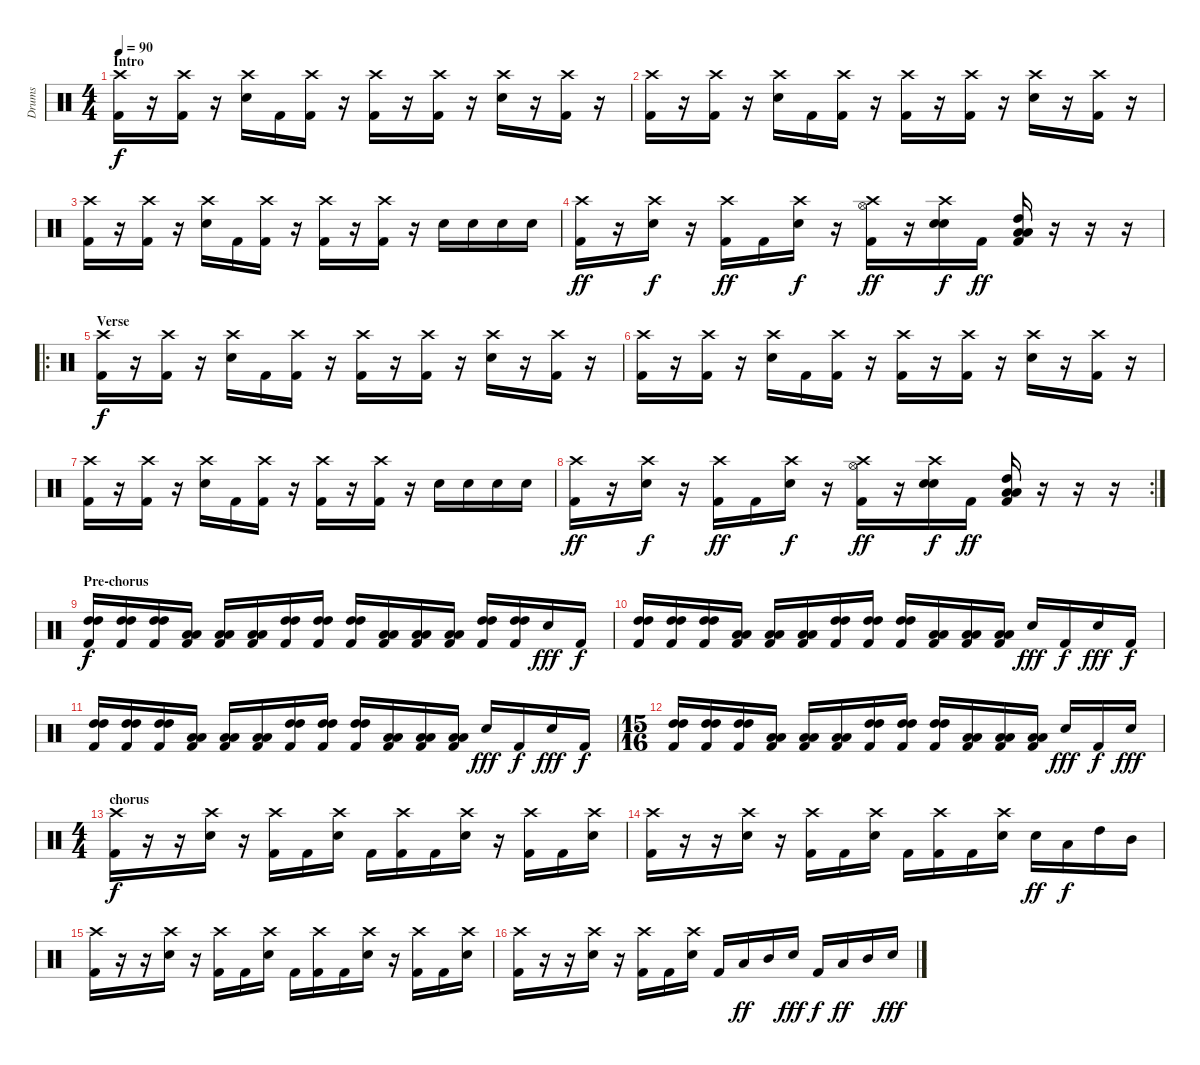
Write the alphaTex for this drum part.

\track ("Drums" "Drums") {instrument percussion}
\staff {score}
\articulation defaults
\ts (4 4)
\section ("" "Intro")
\tempo 90
\clef neutral
\ks c
("Crash high (hit)" "Kick (hit) 2").16{dy f} r.16 ("Crash high (hit)" "Kick (hit) 2").16 r.16 ("Crash high (hit)" "Electric Snare (hit)").16 "Kick (hit) 2".16 ("Crash high (hit)" "Kick (hit) 2").16 r.16 ("Crash high (hit)" "Kick (hit) 2").16 r.16 ("Crash high (hit)" "Kick (hit) 2").16 r.16 ("Crash high (hit)" "Electric Snare (hit)").16 r.16 ("Crash high (hit)" "Kick (hit) 2").16 r.16 |
("Crash high (hit)" "Kick (hit) 2").16 r.16 ("Crash high (hit)" "Kick (hit) 2").16 r.16 ("Crash high (hit)" "Electric Snare (hit)").16 "Kick (hit) 2".16 ("Crash high (hit)" "Kick (hit) 2").16 r.16 ("Crash high (hit)" "Kick (hit) 2").16 r.16 ("Crash high (hit)" "Kick (hit) 2").16 r.16 ("Crash high (hit)" "Electric Snare (hit)").16 r.16 ("Crash high (hit)" "Kick (hit) 2").16 r.16 |
("Crash high (hit)" "Kick (hit) 2").16 r.16 ("Crash high (hit)" "Kick (hit) 2").16 r.16 ("Crash high (hit)" "Electric Snare (hit)").16 "Kick (hit) 2".16 ("Crash high (hit)" "Kick (hit) 2").16 r.16 ("Crash high (hit)" "Kick (hit) 2").16 r.16 ("Crash high (hit)" "Kick (hit) 2").16 r.16 "Electric Snare (hit)".16 "Electric Snare (hit)".16 "Electric Snare (hit)".16 "Electric Snare (hit)".16 |
("Crash high (hit)" "Kick (hit) 2").16{dy ff} r.16 ("Crash high (hit)" "Electric Snare (hit)").16{dy f} r.16 ("Crash high (hit)" "Kick (hit) 2").16{dy ff} "Kick (hit) 2".16 ("Crash high (hit)" "Electric Snare (hit)").16{dy f} r.16 ("Crash high (hit)" "Hi-Hat (open)" "Kick (hit) 2").16{dy ff} r.16 ("Crash high (hit)" "Electric Snare (hit)" "Electric Snare (hit)").16{dy f} "Kick (hit) 2".16{dy ff} ("Low Tom (hit)" "High Tom (hit)" "Low Tom (hit)" "Kick (hit) 2").16 r.16 r.16 r.16 |
\ro
\section ("" "Verse")
("Crash high (hit)" "Kick (hit) 2").16{dy f} r.16 ("Crash high (hit)" "Kick (hit) 2").16 r.16 ("Crash high (hit)" "Electric Snare (hit)").16 "Kick (hit) 2".16 ("Crash high (hit)" "Kick (hit) 2").16 r.16 ("Crash high (hit)" "Kick (hit) 2").16 r.16 ("Crash high (hit)" "Kick (hit) 2").16 r.16 ("Crash high (hit)" "Electric Snare (hit)").16 r.16 ("Crash high (hit)" "Kick (hit) 2").16 r.16 |
("Crash high (hit)" "Kick (hit) 2").16 r.16 ("Crash high (hit)" "Kick (hit) 2").16 r.16 ("Crash high (hit)" "Electric Snare (hit)").16 "Kick (hit) 2".16 ("Crash high (hit)" "Kick (hit) 2").16 r.16 ("Crash high (hit)" "Kick (hit) 2").16 r.16 ("Crash high (hit)" "Kick (hit) 2").16 r.16 ("Crash high (hit)" "Electric Snare (hit)").16 r.16 ("Crash high (hit)" "Kick (hit) 2").16 r.16 |
("Crash high (hit)" "Kick (hit) 2").16 r.16 ("Crash high (hit)" "Kick (hit) 2").16 r.16 ("Crash high (hit)" "Electric Snare (hit)").16 "Kick (hit) 2".16 ("Crash high (hit)" "Kick (hit) 2").16 r.16 ("Crash high (hit)" "Kick (hit) 2").16 r.16 ("Crash high (hit)" "Kick (hit) 2").16 r.16 "Electric Snare (hit)".16 "Electric Snare (hit)".16 "Electric Snare (hit)".16 "Electric Snare (hit)".16 |
\rc 2
("Crash high (hit)" "Kick (hit) 2").16{dy ff} r.16 ("Crash high (hit)" "Electric Snare (hit)").16{dy f} r.16 ("Crash high (hit)" "Kick (hit) 2").16{dy ff} "Kick (hit) 2".16 ("Crash high (hit)" "Electric Snare (hit)").16{dy f} r.16 ("Crash high (hit)" "Hi-Hat (open)" "Kick (hit) 2").16{dy ff} r.16 ("Crash high (hit)" "Electric Snare (hit)" "Electric Snare (hit)").16{dy f} "Kick (hit) 2".16{dy ff} ("Low Tom (hit)" "High Tom (hit)" "Low Tom (hit)" "Kick (hit) 2").16 r.16 r.16 r.16 |
\section ("" "Pre-chorus")
("High Tom (hit)" "High Tom (hit)" "Kick (hit) 2").16{dy f} ("High Tom (hit)" "High Tom (hit)" "Kick (hit) 2").16 ("High Tom (hit)" "High Tom (hit)" "Kick (hit) 2").16 ("Low Tom (hit)" "Low Tom (hit)" "Kick (hit) 2").16 ("Low Tom (hit)" "Low Tom (hit)" "Kick (hit) 2").16 ("Low Tom (hit)" "Low Tom (hit)" "Kick (hit) 2").16 ("High Tom (hit)" "High Tom (hit)" "Kick (hit) 2").16 ("High Tom (hit)" "High Tom (hit)" "Kick (hit) 2").16 ("High Tom (hit)" "High Tom (hit)" "Kick (hit) 2").16 ("Low Tom (hit)" "Low Tom (hit)" "Kick (hit) 2").16 ("Low Tom (hit)" "Low Tom (hit)" "Kick (hit) 2").16 ("Low Tom (hit)" "Low Tom (hit)" "Kick (hit) 2").16 ("High Tom (hit)" "High Tom (hit)" "Kick (hit) 2").16 ("High Tom (hit)" "High Tom (hit)" "Kick (hit) 2").16 "Electric Snare (hit)".16{dy fff} "Kick (hit) 2".16{dy f} |
("High Tom (hit)" "High Tom (hit)" "Kick (hit) 2").16 ("High Tom (hit)" "High Tom (hit)" "Kick (hit) 2").16 ("High Tom (hit)" "High Tom (hit)" "Kick (hit) 2").16 ("Low Tom (hit)" "Low Tom (hit)" "Kick (hit) 2").16 ("Low Tom (hit)" "Low Tom (hit)" "Kick (hit) 2").16 ("Low Tom (hit)" "Low Tom (hit)" "Kick (hit) 2").16 ("High Tom (hit)" "High Tom (hit)" "Kick (hit) 2").16 ("High Tom (hit)" "High Tom (hit)" "Kick (hit) 2").16 ("High Tom (hit)" "High Tom (hit)" "Kick (hit) 2").16 ("Low Tom (hit)" "Low Tom (hit)" "Kick (hit) 2").16 ("Low Tom (hit)" "Low Tom (hit)" "Kick (hit) 2").16 ("Low Tom (hit)" "Low Tom (hit)" "Kick (hit) 2").16 "Electric Snare (hit)".16{dy fff} "Kick (hit) 2".16{dy f} "Electric Snare (hit)".16{dy fff} "Kick (hit) 2".16{dy f} |
("High Tom (hit)" "High Tom (hit)" "Kick (hit) 2").16 ("High Tom (hit)" "High Tom (hit)" "Kick (hit) 2").16 ("High Tom (hit)" "High Tom (hit)" "Kick (hit) 2").16 ("Low Tom (hit)" "Low Tom (hit)" "Kick (hit) 2").16 ("Low Tom (hit)" "Low Tom (hit)" "Kick (hit) 2").16 ("Low Tom (hit)" "Low Tom (hit)" "Kick (hit) 2").16 ("High Tom (hit)" "High Tom (hit)" "Kick (hit) 2").16 ("High Tom (hit)" "High Tom (hit)" "Kick (hit) 2").16 ("High Tom (hit)" "High Tom (hit)" "Kick (hit) 2").16 ("Low Tom (hit)" "Low Tom (hit)" "Kick (hit) 2").16 ("Low Tom (hit)" "Low Tom (hit)" "Kick (hit) 2").16 ("Low Tom (hit)" "Low Tom (hit)" "Kick (hit) 2").16 "Electric Snare (hit)".16{dy fff} "Kick (hit) 2".16{dy f} "Electric Snare (hit)".16{dy fff} "Kick (hit) 2".16{dy f} |
\ts (15 16)
("High Tom (hit)" "High Tom (hit)" "Kick (hit) 2").16 ("High Tom (hit)" "High Tom (hit)" "Kick (hit) 2").16 ("High Tom (hit)" "High Tom (hit)" "Kick (hit) 2").16 ("Low Tom (hit)" "Low Tom (hit)" "Kick (hit) 2").16 ("Low Tom (hit)" "Low Tom (hit)" "Kick (hit) 2").16 ("Low Tom (hit)" "Low Tom (hit)" "Kick (hit) 2").16 ("High Tom (hit)" "High Tom (hit)" "Kick (hit) 2").16 ("High Tom (hit)" "High Tom (hit)" "Kick (hit) 2").16 ("High Tom (hit)" "High Tom (hit)" "Kick (hit) 2").16 ("Low Tom (hit)" "Low Tom (hit)" "Kick (hit) 2").16 ("Low Tom (hit)" "Low Tom (hit)" "Kick (hit) 2").16 ("Low Tom (hit)" "Low Tom (hit)" "Kick (hit) 2").16 "Electric Snare (hit)".16{dy fff} "Kick (hit) 2".16{dy f} "Electric Snare (hit)".16{dy fff} |
\ts (4 4)
\section ("" "chorus")
("Crash high (hit)" "Kick (hit) 2").16{dy f} r.16 r.16 ("Crash high (hit)" "Electric Snare (hit)").16 r.16 ("Crash high (hit)" "Kick (hit) 2").16 "Kick (hit) 2".16 ("Crash high (hit)" "Electric Snare (hit)").16 "Kick (hit) 2".16 ("Crash high (hit)" "Kick (hit) 2").16 "Kick (hit) 2".16 ("Crash high (hit)" "Electric Snare (hit)").16 r.16 ("Crash high (hit)" "Kick (hit) 2").16 "Kick (hit) 2".16 ("Crash high (hit)" "Electric Snare (hit)").16 |
("Crash high (hit)" "Kick (hit) 2").16 r.16 r.16 ("Crash high (hit)" "Electric Snare (hit)").16 r.16 ("Crash high (hit)" "Kick (hit) 2").16 "Kick (hit) 2".16 ("Crash high (hit)" "Electric Snare (hit)").16 "Kick (hit) 2".16 ("Crash high (hit)" "Kick (hit) 2").16 "Kick (hit) 2".16 ("Crash high (hit)" "Electric Snare (hit)").16 "Electric Snare (hit)".16{dy ff} "Low Tom (hit)".16{dy f} "High Tom (hit)".16 "Mid Tom (hit)".16 |
("Crash high (hit)" "Kick (hit) 2").16 r.16 r.16 ("Crash high (hit)" "Electric Snare (hit)").16 r.16 ("Crash high (hit)" "Kick (hit) 2").16 "Kick (hit) 2".16 ("Crash high (hit)" "Electric Snare (hit)").16 "Kick (hit) 2".16 ("Crash high (hit)" "Kick (hit) 2").16 "Kick (hit) 2".16 ("Crash high (hit)" "Electric Snare (hit)").16 r.16 ("Crash high (hit)" "Kick (hit) 2").16 "Kick (hit) 2".16 ("Crash high (hit)" "Electric Snare (hit)").16 |
("Crash high (hit)" "Kick (hit) 2").16 r.16 r.16 ("Crash high (hit)" "Electric Snare (hit)").16 r.16 ("Crash high (hit)" "Kick (hit) 2").16 "Kick (hit) 2".16 ("Crash high (hit)" "Electric Snare (hit)").16 "Kick (hit) 2".16 "Low Tom (hit)".16{dy ff} "Mid Tom (hit)".16 "Electric Snare (hit)".16{dy fff} "Kick (hit) 2".16{dy f} "Low Tom (hit)".16{dy ff} "Mid Tom (hit)".16 "Electric Snare (hit)".16{dy fff}
